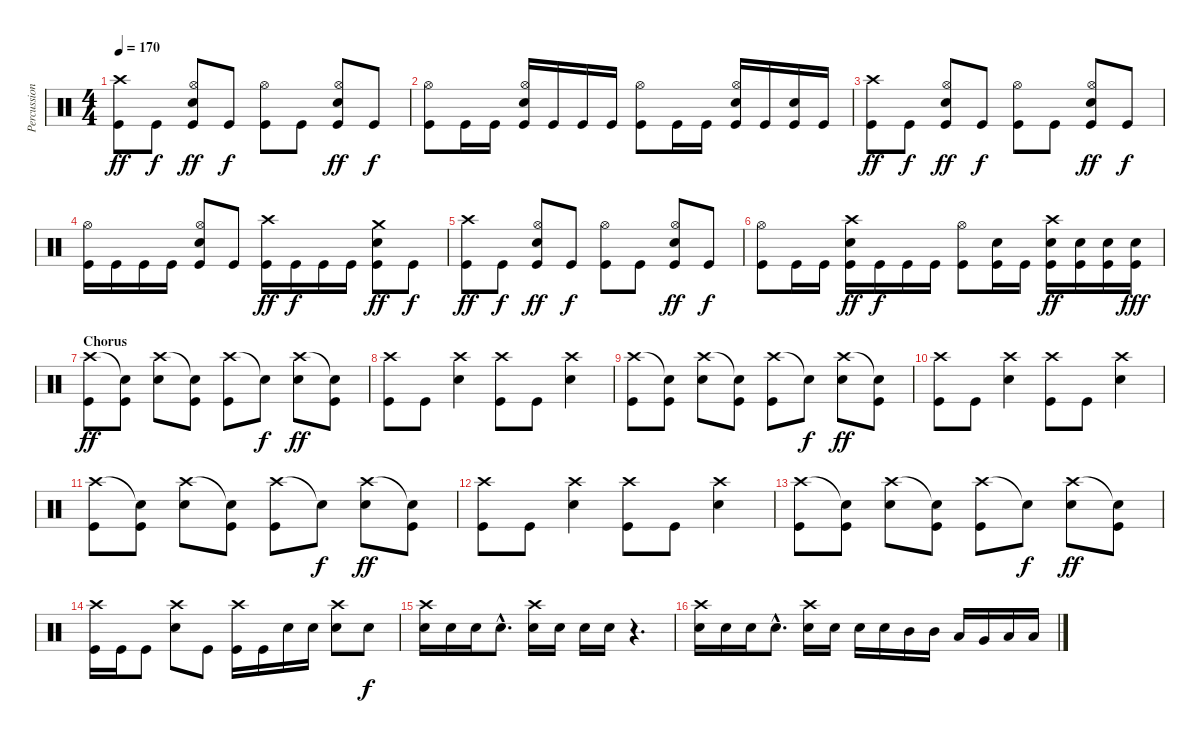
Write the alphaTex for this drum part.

\track ("Percussion" "Percussion") {instrument percussion}
\staff {score}
\articulation defaults
\ts (4 4)
\tempo 170
\clef neutral
\ks c
("Crash high (hit)" "Kick (hit)").8{dy ff} "Kick (hit)".8{dy f} ("Hi-Hat (open)" "Snare (hit) 2" "Kick (hit)").8{dy ff} "Kick (hit)".8{dy f} ("Hi-Hat (open)" "Kick (hit)").8 "Kick (hit)".8 ("Hi-Hat (open)" "Snare (hit) 2" "Kick (hit)").8{dy ff} "Kick (hit)".8{dy f} |
("Hi-Hat (open)" "Kick (hit)").8 "Kick (hit)".16 "Kick (hit)".16 ("Hi-Hat (open)" "Snare (hit) 2" "Kick (hit)").16 "Kick (hit)".16 "Kick (hit)".16 "Kick (hit)".16 ("Hi-Hat (open)" "Kick (hit)").8 "Kick (hit)".16 "Kick (hit)".16 ("Hi-Hat (open)" "Snare (hit) 2" "Kick (hit)").16 "Kick (hit)".16 ("Snare (hit) 2" "Kick (hit)").16 "Kick (hit)".16 |
("Crash high (hit)" "Kick (hit)").8{dy ff} "Kick (hit)".8{dy f} ("Hi-Hat (open)" "Snare (hit) 2" "Kick (hit)").8{dy ff} "Kick (hit)".8{dy f} ("Hi-Hat (open)" "Kick (hit)").8 "Kick (hit)".8 ("Hi-Hat (open)" "Snare (hit) 2" "Kick (hit)").8{dy ff} "Kick (hit)".8{dy f} |
("Hi-Hat (open)" "Kick (hit)").16 "Kick (hit)".16 "Kick (hit)".16 "Kick (hit)".16 ("Hi-Hat (open)" "Snare (hit) 2" "Kick (hit)").8 "Kick (hit)".8 ("Crash high (hit)" "Kick (hit)").16{dy ff} "Kick (hit)".16{dy f} "Kick (hit)".16 "Kick (hit)".16 ("Crash medium (hit)" "Snare (hit) 2" "Kick (hit)").8{dy ff} "Kick (hit)".8{dy f} |
("Crash high (hit)" "Kick (hit)").8{dy ff} "Kick (hit)".8{dy f} ("Hi-Hat (open)" "Snare (hit) 2" "Kick (hit)").8{dy ff} "Kick (hit)".8{dy f} ("Hi-Hat (open)" "Kick (hit)").8 "Kick (hit)".8 ("Hi-Hat (open)" "Snare (hit) 2" "Kick (hit)").8{dy ff} "Kick (hit)".8{dy f} |
("Hi-Hat (open)" "Kick (hit)").8 "Kick (hit)".16 "Kick (hit)".16 ("Crash high (hit)" "Snare (hit) 2" "Kick (hit)").16{dy ff} "Kick (hit)".16{dy f} "Kick (hit)".16 "Kick (hit)".16 ("Hi-Hat (open)" "Kick (hit)").8 ("Snare (hit) 2" "Kick (hit)").16 "Kick (hit)".16 ("Crash high (hit)" "Snare (hit) 2" "Kick (hit)").16{dy ff} ("Snare (hit) 2" "Kick (hit)").16 ("Snare (hit) 2" "Kick (hit)").16 ("Snare (hit) 2" "Kick (hit)").16{dy fff} |
\section ("" "Chorus")
("Crash high (hit)" "Kick (hit)").8{dy ff} ("Snare (hit)"{t} "Kick (hit)").8 ("Crash high (hit)" "Snare (hit) 2").8 ("Snare (hit)"{t} "Kick (hit)").8 ("Crash high (hit)" "Kick (hit)").8 "Snare (hit)"{t}.8{dy f} ("Crash high (hit)" "Snare (hit) 2").8{dy ff} ("Snare (hit)"{t} "Kick (hit)").8 |
("Crash high (hit)" "Kick (hit)").8 "Kick (hit)".8 ("Crash high (hit)" "Snare (hit) 2").4 ("Crash high (hit)" "Kick (hit)").8 "Kick (hit)".8 ("Crash high (hit)" "Snare (hit) 2").4 |
("Crash high (hit)" "Kick (hit)").8 ("Snare (hit)"{t} "Kick (hit)").8 ("Crash high (hit)" "Snare (hit) 2").8 ("Snare (hit)"{t} "Kick (hit)").8 ("Crash high (hit)" "Kick (hit)").8 "Snare (hit)"{t}.8{dy f} ("Crash high (hit)" "Snare (hit) 2").8{dy ff} ("Snare (hit)"{t} "Kick (hit)").8 |
("Crash high (hit)" "Kick (hit)").8 "Kick (hit)".8 ("Crash high (hit)" "Snare (hit) 2").4 ("Crash high (hit)" "Kick (hit)").8 "Kick (hit)".8 ("Crash high (hit)" "Snare (hit) 2").4 |
("Crash high (hit)" "Kick (hit)").8 ("Snare (hit)"{t} "Kick (hit)").8 ("Crash high (hit)" "Snare (hit) 2").8 ("Snare (hit)"{t} "Kick (hit)").8 ("Crash high (hit)" "Kick (hit)").8 "Snare (hit)"{t}.8{dy f} ("Crash high (hit)" "Snare (hit) 2").8{dy ff} ("Snare (hit)"{t} "Kick (hit)").8 |
("Crash high (hit)" "Kick (hit)").8 "Kick (hit)".8 ("Crash high (hit)" "Snare (hit) 2").4 ("Crash high (hit)" "Kick (hit)").8 "Kick (hit)".8 ("Crash high (hit)" "Snare (hit) 2").4 |
("Crash high (hit)" "Kick (hit)").8 ("Snare (hit)"{t} "Kick (hit)").8 ("Crash high (hit)" "Snare (hit) 2").8 ("Snare (hit)"{t} "Kick (hit)").8 ("Crash high (hit)" "Kick (hit)").8 "Snare (hit)"{t}.8{dy f} ("Crash high (hit)" "Snare (hit) 2").8{dy ff} ("Snare (hit)"{t} "Kick (hit)").8 |
("Crash high (hit)" "Kick (hit)").16 "Kick (hit)".16 "Kick (hit)".8 ("Crash high (hit)" "Snare (hit) 2").8 "Kick (hit)".8 ("Crash high (hit)" "Kick (hit)").16 "Kick (hit)".16 "Snare (hit) 2".16 "Snare (hit) 2".16 ("Crash high (hit)" "Snare (hit) 2").8 "Snare (hit) 2".8{dy f} |
("Crash high (hit)" "Snare (hit) 2").16 "Snare (hit) 2".16 "Snare (hit) 2".16 "Snare (hit) 2"{hac}.8{d} ("Crash high (hit)" "Snare (hit) 2").16 "Snare (hit) 2".16 "Snare (hit) 2".16 "Snare (hit) 2".16 r.4{d} |
("Crash high (hit)" "Snare (hit) 2").16 "Snare (hit) 2".16 "Snare (hit) 2".16 "Snare (hit) 2"{hac}.8{d} ("Crash high (hit)" "Snare (hit) 2").16 "Snare (hit) 2".16 "Snare (hit) 2".16 "Snare (hit) 2".16 "Mid Tom (hit)".16 "Mid Tom (hit)".16 "Low Tom (hit)".16 "Very Low Tom (hit)".16 "Low Floor Tom (hit)".16 "Low Floor Tom (hit)".16
